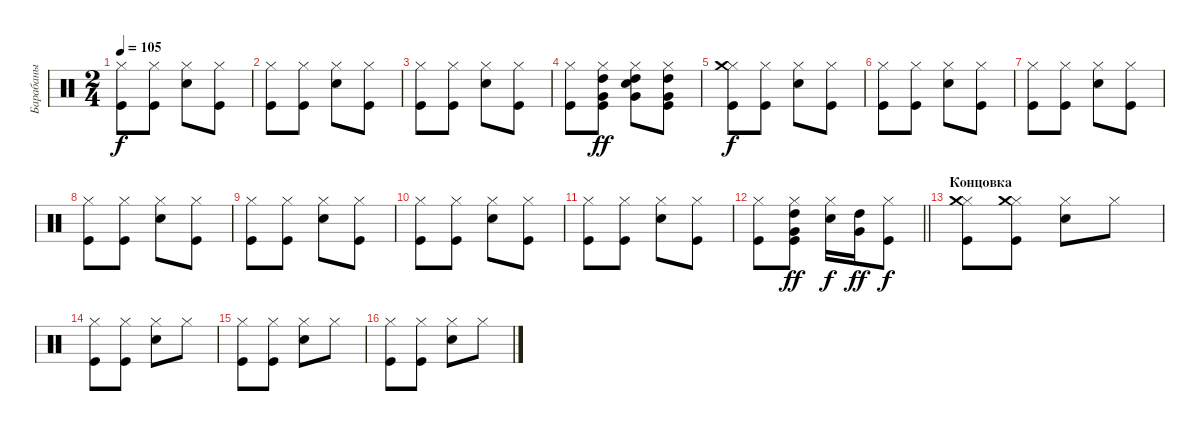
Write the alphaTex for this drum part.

\track ("Барабаны" "Барабаны") {instrument percussion}
\staff {score}
\articulation defaults
\ts (2 4)
\tempo 105
\clef neutral
\ks c
("Kick (hit)" "Hi-Hat (closed)").8{dy f} ("Kick (hit)" "Hi-Hat (closed)").8 ("Snare (hit) 2" "Hi-Hat (closed)").8 ("Kick (hit)" "Hi-Hat (closed)").8 |
("Kick (hit)" "Hi-Hat (closed)").8 ("Kick (hit)" "Hi-Hat (closed)").8 ("Snare (hit) 2" "Hi-Hat (closed)").8 ("Kick (hit)" "Hi-Hat (closed)").8 |
("Kick (hit)" "Hi-Hat (closed)").8 ("Kick (hit)" "Hi-Hat (closed)").8 ("Snare (hit) 2" "Hi-Hat (closed)").8 ("Kick (hit)" "Hi-Hat (closed)").8 |
("Kick (hit)" "Hi-Hat (closed)").8 ("Kick (hit)" "Hi-Hat (closed)" "Very Low Tom (hit)" "High Tom (hit)").8{dy ff} ("Snare (hit) 2" "Hi-Hat (closed)" "Very Low Tom (hit)" "High Tom (hit)").8 ("Kick (hit)" "Hi-Hat (closed)" "Very Low Tom (hit)" "High Tom (hit)").8 |
("Kick (hit)" "Hi-Hat (closed)" "Crash medium (hit)").8{dy f} ("Kick (hit)" "Hi-Hat (closed)").8 ("Snare (hit) 2" "Hi-Hat (closed)").8 ("Kick (hit)" "Hi-Hat (closed)").8 |
("Kick (hit)" "Hi-Hat (closed)").8 ("Kick (hit)" "Hi-Hat (closed)").8 ("Snare (hit) 2" "Hi-Hat (closed)").8 ("Kick (hit)" "Hi-Hat (closed)").8 |
("Kick (hit)" "Hi-Hat (closed)").8 ("Kick (hit)" "Hi-Hat (closed)").8 ("Snare (hit) 2" "Hi-Hat (closed)").8 ("Kick (hit)" "Hi-Hat (closed)").8 |
("Kick (hit)" "Hi-Hat (closed)").8 ("Kick (hit)" "Hi-Hat (closed)").8 ("Snare (hit) 2" "Hi-Hat (closed)").8 ("Kick (hit)" "Hi-Hat (closed)").8 |
("Kick (hit)" "Hi-Hat (closed)").8 ("Kick (hit)" "Hi-Hat (closed)").8 ("Snare (hit) 2" "Hi-Hat (closed)").8 ("Kick (hit)" "Hi-Hat (closed)").8 |
("Kick (hit)" "Hi-Hat (closed)").8 ("Kick (hit)" "Hi-Hat (closed)").8 ("Snare (hit) 2" "Hi-Hat (closed)").8 ("Kick (hit)" "Hi-Hat (closed)").8 |
("Kick (hit)" "Hi-Hat (closed)").8 ("Kick (hit)" "Hi-Hat (closed)").8 ("Snare (hit) 2" "Hi-Hat (closed)").8 ("Kick (hit)" "Hi-Hat (closed)").8 |
\barLineRight lightlight
("Kick (hit)" "Hi-Hat (closed)").8 ("Kick (hit)" "Hi-Hat (closed)" "Very Low Tom (hit)" "High Tom (hit)").8{dy ff} ("Snare (hit) 2" "Hi-Hat (closed)").16{dy f} ("Very Low Tom (hit)" "High Tom (hit)").16{dy ff} ("Kick (hit)" "Hi-Hat (closed)").8{dy f} |
\section ("" "Концовка")
("Kick (hit)" "Hi-Hat (closed)" "Crash medium (hit)").8 ("Kick (hit)" "Hi-Hat (closed)" "Crash medium (hit)").8 ("Snare (hit) 2" "Hi-Hat (closed)").8 "Hi-Hat (closed)".8 |
("Kick (hit)" "Hi-Hat (closed)").8 ("Kick (hit)" "Hi-Hat (closed)").8 ("Snare (hit) 2" "Hi-Hat (closed)").8 "Hi-Hat (closed)".8 |
("Kick (hit)" "Hi-Hat (closed)").8 ("Kick (hit)" "Hi-Hat (closed)").8 ("Snare (hit) 2" "Hi-Hat (closed)").8 "Hi-Hat (closed)".8 |
("Kick (hit)" "Hi-Hat (closed)").8 ("Kick (hit)" "Hi-Hat (closed)").8 ("Snare (hit) 2" "Hi-Hat (closed)").8 "Hi-Hat (closed)".8
